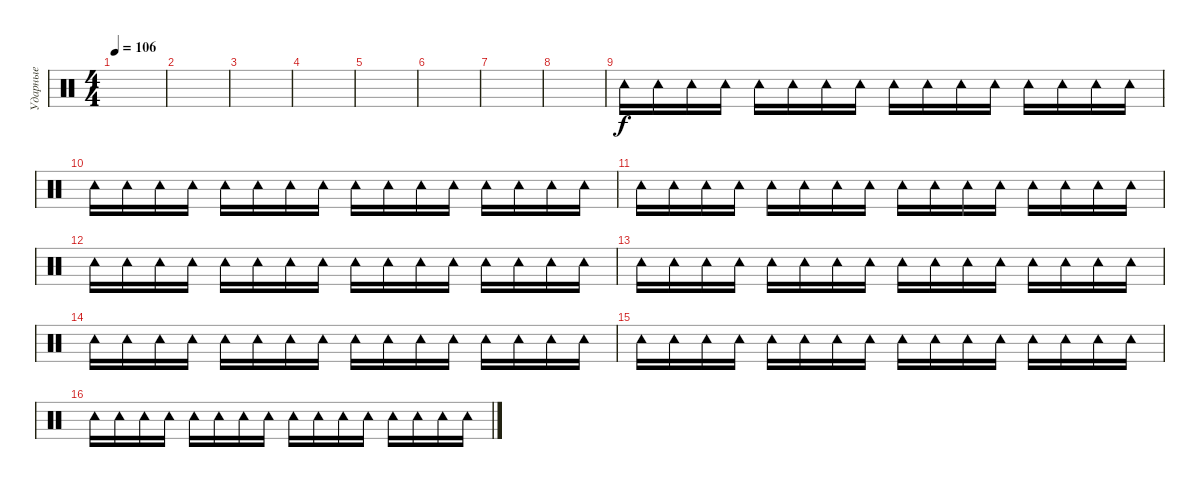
\track ("Ударные" "Ударные") {instrument percussion}
\staff {score}
\articulation defaults
\ts (4 4)
\tempo 106
\clef neutral
\ks c
|
|
|
|
|
|
|
|
"Tambourine (hit)".16 "Tambourine (hit)".16 "Tambourine (hit)".16 "Tambourine (hit)".16 "Tambourine (hit)".16 "Tambourine (hit)".16 "Tambourine (hit)".16 "Tambourine (hit)".16 "Tambourine (hit)".16 "Tambourine (hit)".16 "Tambourine (hit)".16 "Tambourine (hit)".16 "Tambourine (hit)".16 "Tambourine (hit)".16 "Tambourine (hit)".16 "Tambourine (hit)".16 |
"Tambourine (hit)".16 "Tambourine (hit)".16 "Tambourine (hit)".16 "Tambourine (hit)".16 "Tambourine (hit)".16 "Tambourine (hit)".16 "Tambourine (hit)".16 "Tambourine (hit)".16 "Tambourine (hit)".16 "Tambourine (hit)".16 "Tambourine (hit)".16 "Tambourine (hit)".16 "Tambourine (hit)".16 "Tambourine (hit)".16 "Tambourine (hit)".16 "Tambourine (hit)".16 |
"Tambourine (hit)".16 "Tambourine (hit)".16 "Tambourine (hit)".16 "Tambourine (hit)".16 "Tambourine (hit)".16 "Tambourine (hit)".16 "Tambourine (hit)".16 "Tambourine (hit)".16 "Tambourine (hit)".16 "Tambourine (hit)".16 "Tambourine (hit)".16 "Tambourine (hit)".16 "Tambourine (hit)".16 "Tambourine (hit)".16 "Tambourine (hit)".16 "Tambourine (hit)".16 |
"Tambourine (hit)".16 "Tambourine (hit)".16 "Tambourine (hit)".16 "Tambourine (hit)".16 "Tambourine (hit)".16 "Tambourine (hit)".16 "Tambourine (hit)".16 "Tambourine (hit)".16 "Tambourine (hit)".16 "Tambourine (hit)".16 "Tambourine (hit)".16 "Tambourine (hit)".16 "Tambourine (hit)".16 "Tambourine (hit)".16 "Tambourine (hit)".16 "Tambourine (hit)".16 |
"Tambourine (hit)".16 "Tambourine (hit)".16 "Tambourine (hit)".16 "Tambourine (hit)".16 "Tambourine (hit)".16 "Tambourine (hit)".16 "Tambourine (hit)".16 "Tambourine (hit)".16 "Tambourine (hit)".16 "Tambourine (hit)".16 "Tambourine (hit)".16 "Tambourine (hit)".16 "Tambourine (hit)".16 "Tambourine (hit)".16 "Tambourine (hit)".16 "Tambourine (hit)".16 |
"Tambourine (hit)".16 "Tambourine (hit)".16 "Tambourine (hit)".16 "Tambourine (hit)".16 "Tambourine (hit)".16 "Tambourine (hit)".16 "Tambourine (hit)".16 "Tambourine (hit)".16 "Tambourine (hit)".16 "Tambourine (hit)".16 "Tambourine (hit)".16 "Tambourine (hit)".16 "Tambourine (hit)".16 "Tambourine (hit)".16 "Tambourine (hit)".16 "Tambourine (hit)".16 |
"Tambourine (hit)".16 "Tambourine (hit)".16 "Tambourine (hit)".16 "Tambourine (hit)".16 "Tambourine (hit)".16 "Tambourine (hit)".16 "Tambourine (hit)".16 "Tambourine (hit)".16 "Tambourine (hit)".16 "Tambourine (hit)".16 "Tambourine (hit)".16 "Tambourine (hit)".16 "Tambourine (hit)".16 "Tambourine (hit)".16 "Tambourine (hit)".16 "Tambourine (hit)".16 |
"Tambourine (hit)".16 "Tambourine (hit)".16 "Tambourine (hit)".16 "Tambourine (hit)".16 "Tambourine (hit)".16 "Tambourine (hit)".16 "Tambourine (hit)".16 "Tambourine (hit)".16 "Tambourine (hit)".16 "Tambourine (hit)".16 "Tambourine (hit)".16 "Tambourine (hit)".16 "Tambourine (hit)".16 "Tambourine (hit)".16 "Tambourine (hit)".16 "Tambourine (hit)".16
